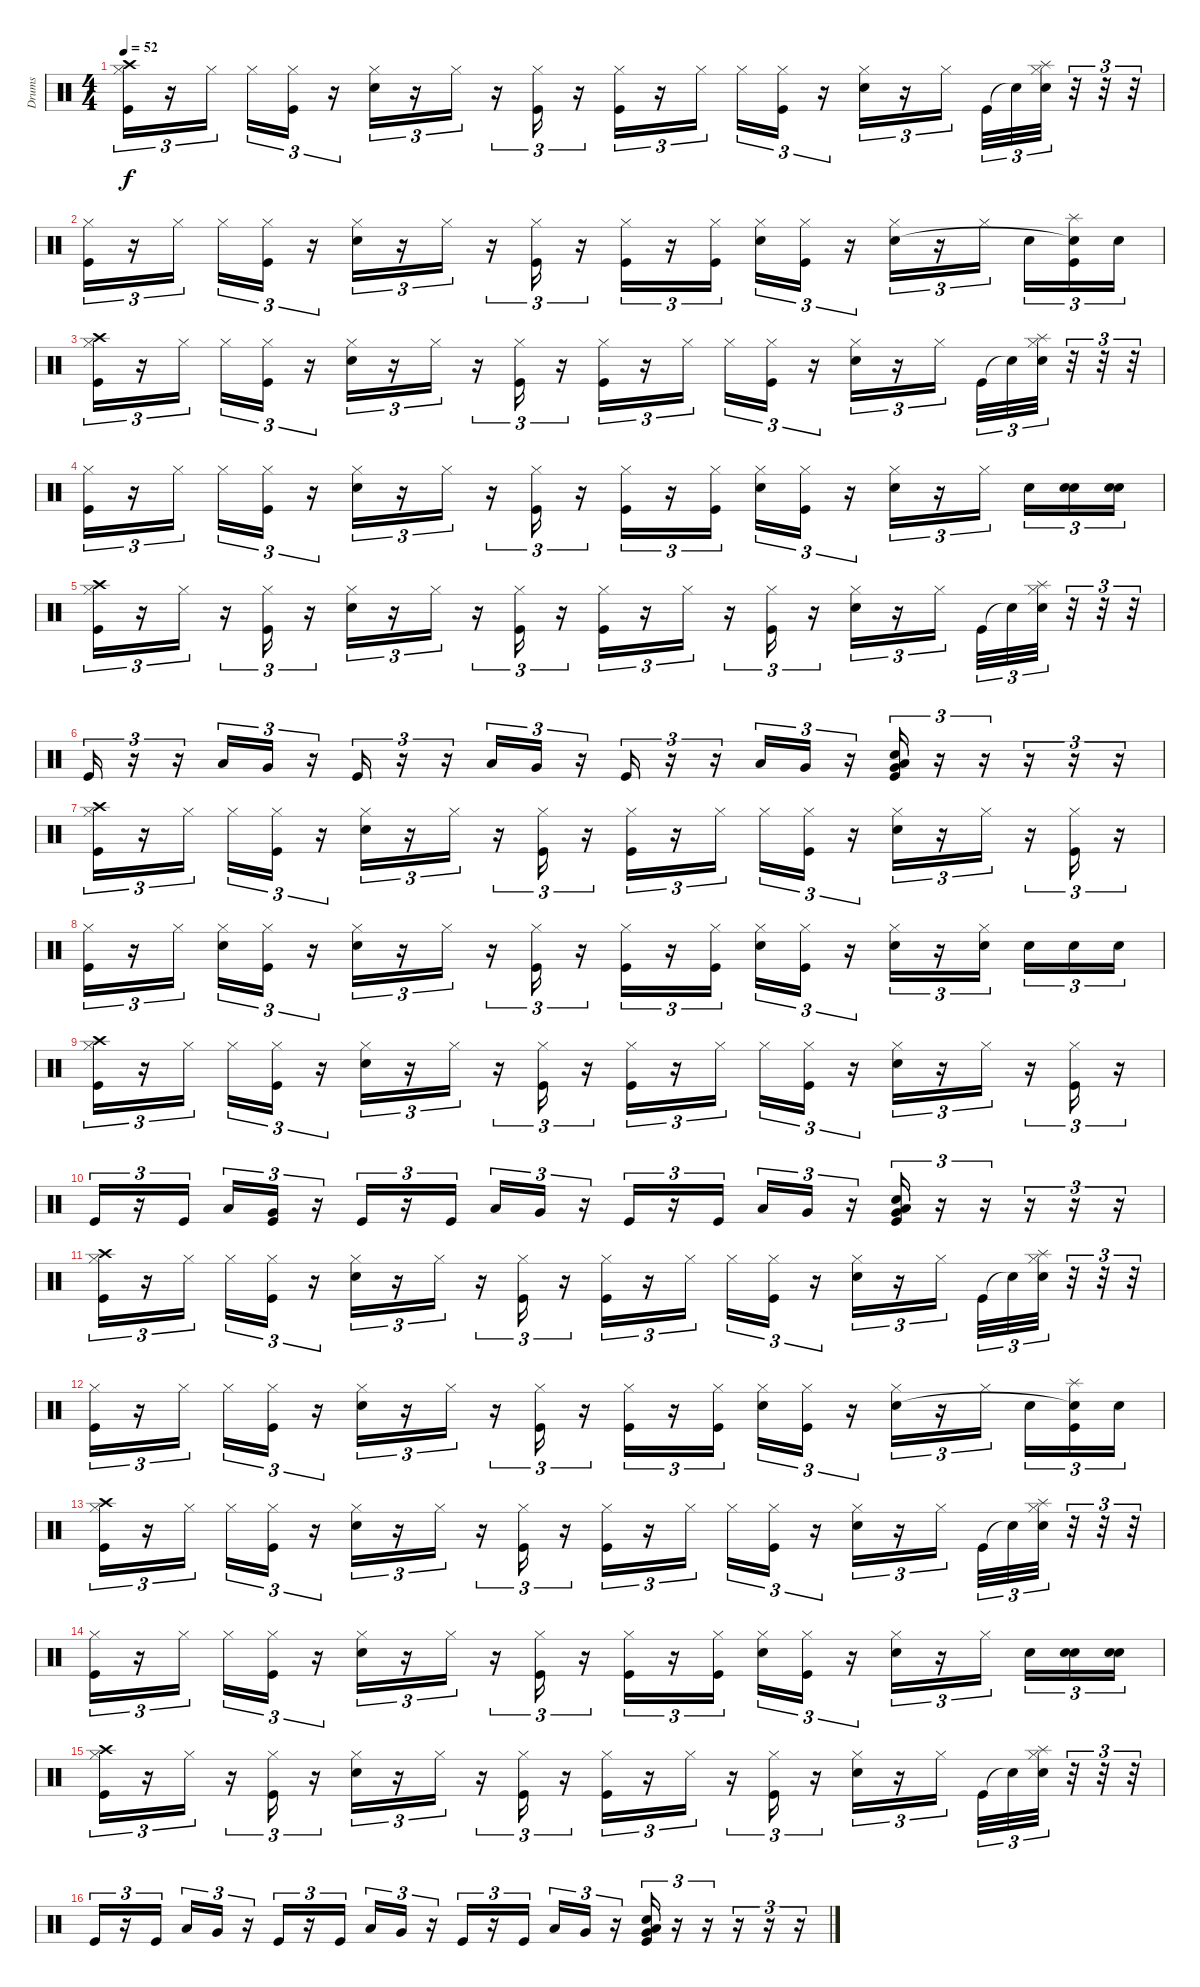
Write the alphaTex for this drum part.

\track ("Drums" "Drums") {instrument percussion}
\staff {score}
\articulation defaults
\ts (4 4)
\tempo 52
\clef neutral
\ks c
("Hi-Hat (closed)" "Crash high (hit)" "Kick (hit)").16{tu (3 2) dy f} r.16{tu (3 2)} "Hi-Hat (closed)".16{tu (3 2)} "Hi-Hat (closed)".16{tu (3 2)} ("Hi-Hat (closed)" "Kick (hit)").16{tu (3 2)} r.16{tu (3 2)} ("Hi-Hat (closed)" "Electric Snare (hit)").16{tu (3 2)} r.16{tu (3 2)} "Hi-Hat (closed)".16{tu (3 2)} r.16{tu (3 2)} ("Hi-Hat (closed)" "Kick (hit)").16{tu (3 2)} r.16{tu (3 2)} ("Hi-Hat (closed)" "Kick (hit)").16{tu (3 2)} r.16{tu (3 2)} "Hi-Hat (closed)".16{tu (3 2)} "Hi-Hat (closed)".16{tu (3 2)} ("Hi-Hat (closed)" "Kick (hit)").16{tu (3 2)} r.16{tu (3 2)} ("Hi-Hat (closed)" "Electric Snare (hit)").16{tu (3 2)} r.16{tu (3 2)} "Hi-Hat (closed)".16{tu (3 2)} "Kick (hit)".32{tu (3 2)} "Snare (hit)"{t}.32{tu (3 2)} ("Hi-Hat (closed)" "Splash (hit)" "Electric Snare (hit)").32{tu (3 2)} r.32{tu (3 2)} r.32{tu (3 2)} r.32{tu (3 2)} |
("Hi-Hat (closed)" "Kick (hit)").16{tu (3 2)} r.16{tu (3 2)} "Hi-Hat (closed)".16{tu (3 2)} "Hi-Hat (closed)".16{tu (3 2)} ("Hi-Hat (closed)" "Kick (hit)").16{tu (3 2)} r.16{tu (3 2)} ("Hi-Hat (closed)" "Electric Snare (hit)").16{tu (3 2)} r.16{tu (3 2)} "Hi-Hat (closed)".16{tu (3 2)} r.16{tu (3 2)} ("Hi-Hat (closed)" "Kick (hit)").16{tu (3 2)} r.16{tu (3 2)} ("Hi-Hat (closed)" "Kick (hit)").16{tu (3 2)} r.16{tu (3 2)} ("Hi-Hat (closed)" "Kick (hit)").16{tu (3 2)} ("Hi-Hat (closed)" "Snare (hit) 2").16{tu (3 2)} ("Hi-Hat (closed)" "Kick (hit)").16{tu (3 2)} r.16{tu (3 2)} ("Hi-Hat (closed)" "Electric Snare (hit)").16{tu (3 2)} r.16{tu (3 2)} "Hi-Hat (closed)".16{tu (3 2)} "Snare (hit) 2".16{tu (3 2)} ("Splash (hit)" "Snare (hit)"{t} "Kick (hit)").16{tu (3 2)} "Snare (hit) 2".16{tu (3 2)} |
("Hi-Hat (closed)" "Crash high (hit)" "Kick (hit)").16{tu (3 2)} r.16{tu (3 2)} "Hi-Hat (closed)".16{tu (3 2)} "Hi-Hat (closed)".16{tu (3 2)} ("Hi-Hat (closed)" "Kick (hit)").16{tu (3 2)} r.16{tu (3 2)} ("Hi-Hat (closed)" "Electric Snare (hit)").16{tu (3 2)} r.16{tu (3 2)} "Hi-Hat (closed)".16{tu (3 2)} r.16{tu (3 2)} ("Hi-Hat (closed)" "Kick (hit)").16{tu (3 2)} r.16{tu (3 2)} ("Hi-Hat (closed)" "Kick (hit)").16{tu (3 2)} r.16{tu (3 2)} "Hi-Hat (closed)".16{tu (3 2)} "Hi-Hat (closed)".16{tu (3 2)} ("Hi-Hat (closed)" "Kick (hit)").16{tu (3 2)} r.16{tu (3 2)} ("Hi-Hat (closed)" "Electric Snare (hit)").16{tu (3 2)} r.16{tu (3 2)} "Hi-Hat (closed)".16{tu (3 2)} "Kick (hit)".32{tu (3 2)} "Snare (hit)"{t}.32{tu (3 2)} ("Hi-Hat (closed)" "Splash (hit)" "Electric Snare (hit)").32{tu (3 2)} r.32{tu (3 2)} r.32{tu (3 2)} r.32{tu (3 2)} |
("Hi-Hat (closed)" "Kick (hit)").16{tu (3 2)} r.16{tu (3 2)} "Hi-Hat (closed)".16{tu (3 2)} "Hi-Hat (closed)".16{tu (3 2)} ("Hi-Hat (closed)" "Kick (hit)").16{tu (3 2)} r.16{tu (3 2)} ("Hi-Hat (closed)" "Electric Snare (hit)").16{tu (3 2)} r.16{tu (3 2)} "Hi-Hat (closed)".16{tu (3 2)} r.16{tu (3 2)} ("Hi-Hat (closed)" "Kick (hit)").16{tu (3 2)} r.16{tu (3 2)} ("Hi-Hat (closed)" "Kick (hit)").16{tu (3 2)} r.16{tu (3 2)} ("Hi-Hat (closed)" "Kick (hit)").16{tu (3 2)} ("Hi-Hat (closed)" "Snare (hit) 2").16{tu (3 2)} ("Hi-Hat (closed)" "Kick (hit)").16{tu (3 2)} r.16{tu (3 2)} ("Hi-Hat (closed)" "Electric Snare (hit)").16{tu (3 2)} r.16{tu (3 2)} "Hi-Hat (closed)".16{tu (3 2)} "Snare (hit) 2".16{tu (3 2)} ("Electric Snare (hit)" "Electric Snare (hit)").16{tu (3 2)} ("Electric Snare (hit)" "Electric Snare (hit)").16{tu (3 2)} |
("Hi-Hat (closed)" "Crash high (hit)" "Kick (hit)").16{tu (3 2)} r.16{tu (3 2)} "Hi-Hat (closed)".16{tu (3 2)} r.16{tu (3 2)} ("Hi-Hat (closed)" "Kick (hit)").16{tu (3 2)} r.16{tu (3 2)} ("Hi-Hat (closed)" "Electric Snare (hit)").16{tu (3 2)} r.16{tu (3 2)} "Hi-Hat (closed)".16{tu (3 2)} r.16{tu (3 2)} ("Hi-Hat (closed)" "Kick (hit)").16{tu (3 2)} r.16{tu (3 2)} ("Hi-Hat (closed)" "Kick (hit)").16{tu (3 2)} r.16{tu (3 2)} "Hi-Hat (closed)".16{tu (3 2)} r.16{tu (3 2)} ("Hi-Hat (closed)" "Kick (hit)").16{tu (3 2)} r.16{tu (3 2)} ("Hi-Hat (closed)" "Electric Snare (hit)").16{tu (3 2)} r.16{tu (3 2)} "Hi-Hat (closed)".16{tu (3 2)} "Kick (hit)".32{tu (3 2)} "Snare (hit)"{t}.32{tu (3 2)} ("Hi-Hat (closed)" "Splash (hit)" "Electric Snare (hit)").32{tu (3 2)} r.32{tu (3 2)} r.32{tu (3 2)} r.32{tu (3 2)} |
"Kick (hit)".16{tu (3 2)} r.16{tu (3 2)} r.16{tu (3 2)} "Low Tom (hit)".16{tu (3 2)} "Very Low Tom (hit)".16{tu (3 2)} r.16{tu (3 2)} "Kick (hit)".16{tu (3 2)} r.16{tu (3 2)} r.16{tu (3 2)} "Low Tom (hit)".16{tu (3 2)} "Very Low Tom (hit)".16{tu (3 2)} r.16{tu (3 2)} "Kick (hit)".16{tu (3 2)} r.16{tu (3 2)} r.16{tu (3 2)} "Low Tom (hit)".16{tu (3 2)} "Very Low Tom (hit)".16{tu (3 2)} r.16{tu (3 2)} ("Electric Snare (hit)" "Low Tom (hit)" "Very Low Tom (hit)" "Kick (hit)").16{tu (3 2)} r.16{tu (3 2)} r.16{tu (3 2)} r.16{tu (3 2)} r.16{tu (3 2)} r.16{tu (3 2)} |
("Hi-Hat (closed)" "Crash high (hit)" "Kick (hit)").16{tu (3 2)} r.16{tu (3 2)} "Hi-Hat (closed)".16{tu (3 2)} "Hi-Hat (closed)".16{tu (3 2)} ("Hi-Hat (closed)" "Kick (hit)").16{tu (3 2)} r.16{tu (3 2)} ("Hi-Hat (closed)" "Electric Snare (hit)").16{tu (3 2)} r.16{tu (3 2)} "Hi-Hat (closed)".16{tu (3 2)} r.16{tu (3 2)} ("Hi-Hat (closed)" "Kick (hit)").16{tu (3 2)} r.16{tu (3 2)} ("Hi-Hat (closed)" "Kick (hit)").16{tu (3 2)} r.16{tu (3 2)} "Hi-Hat (closed)".16{tu (3 2)} "Hi-Hat (closed)".16{tu (3 2)} ("Hi-Hat (closed)" "Kick (hit)").16{tu (3 2)} r.16{tu (3 2)} ("Hi-Hat (closed)" "Electric Snare (hit)").16{tu (3 2)} r.16{tu (3 2)} "Hi-Hat (closed)".16{tu (3 2)} r.16{tu (3 2)} ("Hi-Hat (closed)" "Kick (hit)").16{tu (3 2)} r.16{tu (3 2)} |
("Hi-Hat (closed)" "Kick (hit)").16{tu (3 2)} r.16{tu (3 2)} "Hi-Hat (closed)".16{tu (3 2)} ("Hi-Hat (closed)" "Snare (hit) 2").16{tu (3 2)} ("Hi-Hat (closed)" "Kick (hit)").16{tu (3 2)} r.16{tu (3 2)} ("Hi-Hat (closed)" "Electric Snare (hit)").16{tu (3 2)} r.16{tu (3 2)} "Hi-Hat (closed)".16{tu (3 2)} r.16{tu (3 2)} ("Hi-Hat (closed)" "Kick (hit)").16{tu (3 2)} r.16{tu (3 2)} ("Hi-Hat (closed)" "Kick (hit)").16{tu (3 2)} r.16{tu (3 2)} ("Hi-Hat (closed)" "Kick (hit)").16{tu (3 2)} ("Hi-Hat (closed)" "Snare (hit) 2").16{tu (3 2)} ("Hi-Hat (closed)" "Kick (hit)").16{tu (3 2)} r.16{tu (3 2)} ("Hi-Hat (closed)" "Electric Snare (hit)").16{tu (3 2)} r.16{tu (3 2)} ("Hi-Hat (closed)" "Snare (hit) 2").16{tu (3 2)} "Snare (hit) 2".16{tu (3 2)} "Snare (hit) 2".16{tu (3 2)} "Snare (hit) 2".16{tu (3 2)} |
("Hi-Hat (closed)" "Crash high (hit)" "Kick (hit)").16{tu (3 2)} r.16{tu (3 2)} "Hi-Hat (closed)".16{tu (3 2)} "Hi-Hat (closed)".16{tu (3 2)} ("Hi-Hat (closed)" "Kick (hit)").16{tu (3 2)} r.16{tu (3 2)} ("Hi-Hat (closed)" "Electric Snare (hit)").16{tu (3 2)} r.16{tu (3 2)} "Hi-Hat (closed)".16{tu (3 2)} r.16{tu (3 2)} ("Hi-Hat (closed)" "Kick (hit)").16{tu (3 2)} r.16{tu (3 2)} ("Hi-Hat (closed)" "Kick (hit)").16{tu (3 2)} r.16{tu (3 2)} "Hi-Hat (closed)".16{tu (3 2)} "Hi-Hat (closed)".16{tu (3 2)} ("Hi-Hat (closed)" "Kick (hit)").16{tu (3 2)} r.16{tu (3 2)} ("Hi-Hat (closed)" "Electric Snare (hit)").16{tu (3 2)} r.16{tu (3 2)} "Hi-Hat (closed)".16{tu (3 2)} r.16{tu (3 2)} ("Hi-Hat (closed)" "Kick (hit)").16{tu (3 2)} r.16{tu (3 2)} |
"Kick (hit)".16{tu (3 2)} r.16{tu (3 2)} "Kick (hit)".16{tu (3 2)} "Low Tom (hit)".16{tu (3 2)} ("Very Low Tom (hit)" "Kick (hit)").16{tu (3 2)} r.16{tu (3 2)} "Kick (hit)".16{tu (3 2)} r.16{tu (3 2)} "Kick (hit)".16{tu (3 2)} "Low Tom (hit)".16{tu (3 2)} "Very Low Tom (hit)".16{tu (3 2)} r.16{tu (3 2)} "Kick (hit)".16{tu (3 2)} r.16{tu (3 2)} "Kick (hit)".16{tu (3 2)} "Low Tom (hit)".16{tu (3 2)} "Very Low Tom (hit)".16{tu (3 2)} r.16{tu (3 2)} ("Electric Snare (hit)" "Low Tom (hit)" "Very Low Tom (hit)" "Kick (hit)").16{tu (3 2)} r.16{tu (3 2)} r.16{tu (3 2)} r.16{tu (3 2)} r.16{tu (3 2)} r.16{tu (3 2)} |
("Hi-Hat (closed)" "Crash high (hit)" "Kick (hit)").16{tu (3 2)} r.16{tu (3 2)} "Hi-Hat (closed)".16{tu (3 2)} "Hi-Hat (closed)".16{tu (3 2)} ("Hi-Hat (closed)" "Kick (hit)").16{tu (3 2)} r.16{tu (3 2)} ("Hi-Hat (closed)" "Electric Snare (hit)").16{tu (3 2)} r.16{tu (3 2)} "Hi-Hat (closed)".16{tu (3 2)} r.16{tu (3 2)} ("Hi-Hat (closed)" "Kick (hit)").16{tu (3 2)} r.16{tu (3 2)} ("Hi-Hat (closed)" "Kick (hit)").16{tu (3 2)} r.16{tu (3 2)} "Hi-Hat (closed)".16{tu (3 2)} "Hi-Hat (closed)".16{tu (3 2)} ("Hi-Hat (closed)" "Kick (hit)").16{tu (3 2)} r.16{tu (3 2)} ("Hi-Hat (closed)" "Electric Snare (hit)").16{tu (3 2)} r.16{tu (3 2)} "Hi-Hat (closed)".16{tu (3 2)} "Kick (hit)".32{tu (3 2)} "Snare (hit)"{t}.32{tu (3 2)} ("Hi-Hat (closed)" "Splash (hit)" "Electric Snare (hit)").32{tu (3 2)} r.32{tu (3 2)} r.32{tu (3 2)} r.32{tu (3 2)} |
("Hi-Hat (closed)" "Kick (hit)").16{tu (3 2)} r.16{tu (3 2)} "Hi-Hat (closed)".16{tu (3 2)} "Hi-Hat (closed)".16{tu (3 2)} ("Hi-Hat (closed)" "Kick (hit)").16{tu (3 2)} r.16{tu (3 2)} ("Hi-Hat (closed)" "Electric Snare (hit)").16{tu (3 2)} r.16{tu (3 2)} "Hi-Hat (closed)".16{tu (3 2)} r.16{tu (3 2)} ("Hi-Hat (closed)" "Kick (hit)").16{tu (3 2)} r.16{tu (3 2)} ("Hi-Hat (closed)" "Kick (hit)").16{tu (3 2)} r.16{tu (3 2)} ("Hi-Hat (closed)" "Kick (hit)").16{tu (3 2)} ("Hi-Hat (closed)" "Snare (hit) 2").16{tu (3 2)} ("Hi-Hat (closed)" "Kick (hit)").16{tu (3 2)} r.16{tu (3 2)} ("Hi-Hat (closed)" "Electric Snare (hit)").16{tu (3 2)} r.16{tu (3 2)} "Hi-Hat (closed)".16{tu (3 2)} "Snare (hit) 2".16{tu (3 2)} ("Splash (hit)" "Snare (hit)"{t} "Kick (hit)").16{tu (3 2)} "Snare (hit) 2".16{tu (3 2)} |
("Hi-Hat (closed)" "Crash high (hit)" "Kick (hit)").16{tu (3 2)} r.16{tu (3 2)} "Hi-Hat (closed)".16{tu (3 2)} "Hi-Hat (closed)".16{tu (3 2)} ("Hi-Hat (closed)" "Kick (hit)").16{tu (3 2)} r.16{tu (3 2)} ("Hi-Hat (closed)" "Electric Snare (hit)").16{tu (3 2)} r.16{tu (3 2)} "Hi-Hat (closed)".16{tu (3 2)} r.16{tu (3 2)} ("Hi-Hat (closed)" "Kick (hit)").16{tu (3 2)} r.16{tu (3 2)} ("Hi-Hat (closed)" "Kick (hit)").16{tu (3 2)} r.16{tu (3 2)} "Hi-Hat (closed)".16{tu (3 2)} "Hi-Hat (closed)".16{tu (3 2)} ("Hi-Hat (closed)" "Kick (hit)").16{tu (3 2)} r.16{tu (3 2)} ("Hi-Hat (closed)" "Electric Snare (hit)").16{tu (3 2)} r.16{tu (3 2)} "Hi-Hat (closed)".16{tu (3 2)} "Kick (hit)".32{tu (3 2)} "Snare (hit)"{t}.32{tu (3 2)} ("Hi-Hat (closed)" "Splash (hit)" "Electric Snare (hit)").32{tu (3 2)} r.32{tu (3 2)} r.32{tu (3 2)} r.32{tu (3 2)} |
("Hi-Hat (closed)" "Kick (hit)").16{tu (3 2)} r.16{tu (3 2)} "Hi-Hat (closed)".16{tu (3 2)} "Hi-Hat (closed)".16{tu (3 2)} ("Hi-Hat (closed)" "Kick (hit)").16{tu (3 2)} r.16{tu (3 2)} ("Hi-Hat (closed)" "Electric Snare (hit)").16{tu (3 2)} r.16{tu (3 2)} "Hi-Hat (closed)".16{tu (3 2)} r.16{tu (3 2)} ("Hi-Hat (closed)" "Kick (hit)").16{tu (3 2)} r.16{tu (3 2)} ("Hi-Hat (closed)" "Kick (hit)").16{tu (3 2)} r.16{tu (3 2)} ("Hi-Hat (closed)" "Kick (hit)").16{tu (3 2)} ("Hi-Hat (closed)" "Snare (hit) 2").16{tu (3 2)} ("Hi-Hat (closed)" "Kick (hit)").16{tu (3 2)} r.16{tu (3 2)} ("Hi-Hat (closed)" "Electric Snare (hit)").16{tu (3 2)} r.16{tu (3 2)} "Hi-Hat (closed)".16{tu (3 2)} "Snare (hit) 2".16{tu (3 2)} ("Electric Snare (hit)" "Electric Snare (hit)").16{tu (3 2)} ("Electric Snare (hit)" "Electric Snare (hit)").16{tu (3 2)} |
("Hi-Hat (closed)" "Crash high (hit)" "Kick (hit)").16{tu (3 2)} r.16{tu (3 2)} "Hi-Hat (closed)".16{tu (3 2)} r.16{tu (3 2)} ("Hi-Hat (closed)" "Kick (hit)").16{tu (3 2)} r.16{tu (3 2)} ("Hi-Hat (closed)" "Electric Snare (hit)").16{tu (3 2)} r.16{tu (3 2)} "Hi-Hat (closed)".16{tu (3 2)} r.16{tu (3 2)} ("Hi-Hat (closed)" "Kick (hit)").16{tu (3 2)} r.16{tu (3 2)} ("Hi-Hat (closed)" "Kick (hit)").16{tu (3 2)} r.16{tu (3 2)} "Hi-Hat (closed)".16{tu (3 2)} r.16{tu (3 2)} ("Hi-Hat (closed)" "Kick (hit)").16{tu (3 2)} r.16{tu (3 2)} ("Hi-Hat (closed)" "Electric Snare (hit)").16{tu (3 2)} r.16{tu (3 2)} "Hi-Hat (closed)".16{tu (3 2)} "Kick (hit)".32{tu (3 2)} "Snare (hit)"{t}.32{tu (3 2)} ("Hi-Hat (closed)" "Splash (hit)" "Electric Snare (hit)").32{tu (3 2)} r.32{tu (3 2)} r.32{tu (3 2)} r.32{tu (3 2)} |
"Kick (hit)".16{tu (3 2)} r.16{tu (3 2)} "Kick (hit)".16{tu (3 2)} "Low Tom (hit)".16{tu (3 2)} "Very Low Tom (hit)".16{tu (3 2)} r.16{tu (3 2)} "Kick (hit)".16{tu (3 2)} r.16{tu (3 2)} "Kick (hit)".16{tu (3 2)} "Low Tom (hit)".16{tu (3 2)} "Very Low Tom (hit)".16{tu (3 2)} r.16{tu (3 2)} "Kick (hit)".16{tu (3 2)} r.16{tu (3 2)} "Kick (hit)".16{tu (3 2)} "Low Tom (hit)".16{tu (3 2)} "Very Low Tom (hit)".16{tu (3 2)} r.16{tu (3 2)} ("Electric Snare (hit)" "Low Tom (hit)" "Very Low Tom (hit)" "Kick (hit)").16{tu (3 2)} r.16{tu (3 2)} r.16{tu (3 2)} r.16{tu (3 2)} r.16{tu (3 2)} r.16{tu (3 2)}
